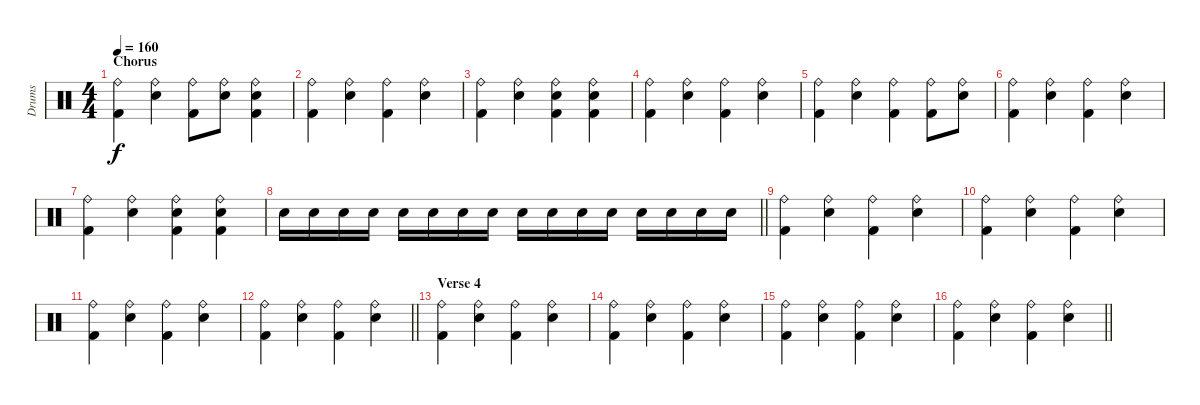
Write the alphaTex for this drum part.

\track ("Drums" "Drums") {instrument percussion}
\staff {score}
\articulation defaults
\ts (4 4)
\section ("" "Chorus")
\tempo 160
\clef neutral
\ks c
("Ride (bell)" "Kick (hit) 2").4{dy f} ("Ride (bell)" "Snare (hit) 2").4 ("Ride (bell)" "Kick (hit) 2").8 ("Ride (bell)" "Snare (hit) 2").8 ("Ride (bell)" "Snare (hit) 2" "Kick (hit) 2").4 |
("Ride (bell)" "Kick (hit) 2").4 ("Ride (bell)" "Snare (hit) 2").4 ("Ride (bell)" "Kick (hit) 2").4 ("Ride (bell)" "Snare (hit) 2").4 |
("Ride (bell)" "Kick (hit) 2").4 ("Ride (bell)" "Snare (hit) 2").4 ("Ride (bell)" "Snare (hit) 2" "Kick (hit) 2").4 ("Ride (bell)" "Snare (hit) 2" "Kick (hit) 2").4 |
("Ride (bell)" "Kick (hit) 2").4 ("Ride (bell)" "Snare (hit) 2").4 ("Ride (bell)" "Kick (hit) 2").4 ("Ride (bell)" "Snare (hit) 2").4 |
("Ride (bell)" "Kick (hit) 2").4 ("Ride (bell)" "Snare (hit) 2").4 ("Ride (bell)" "Kick (hit) 2").4 ("Ride (bell)" "Kick (hit) 2").8 ("Ride (bell)" "Snare (hit) 2").8 |
("Ride (bell)" "Kick (hit) 2").4 ("Ride (bell)" "Snare (hit) 2").4 ("Ride (bell)" "Kick (hit) 2").4 ("Ride (bell)" "Snare (hit) 2").4 |
("Ride (bell)" "Kick (hit) 2").4 ("Ride (bell)" "Snare (hit) 2").4 ("Ride (bell)" "Snare (hit) 2" "Kick (hit) 2").4 ("Ride (bell)" "Snare (hit) 2" "Kick (hit) 2").4 |
\barLineRight lightlight "Snare (hit) 2".16 "Snare (hit) 2".16 "Snare (hit) 2".16 "Snare (hit) 2".16 "Snare (hit) 2".16 "Snare (hit) 2".16 "Snare (hit) 2".16 "Snare (hit) 2".16 "Snare (hit) 2".16 "Snare (hit) 2".16 "Snare (hit) 2".16 "Snare (hit) 2".16 "Snare (hit) 2".16 "Snare (hit) 2".16 "Snare (hit) 2".16 "Snare (hit) 2".16
|
("Ride (bell)" "Kick (hit) 2").4 ("Ride (bell)" "Snare (hit) 2").4 ("Ride (bell)" "Kick (hit) 2").4 ("Ride (bell)" "Snare (hit) 2").4 |
("Ride (bell)" "Kick (hit) 2").4 ("Ride (bell)" "Snare (hit) 2").4 ("Ride (bell)" "Kick (hit) 2").4 ("Ride (bell)" "Snare (hit) 2").4 |
("Ride (bell)" "Kick (hit) 2").4 ("Ride (bell)" "Snare (hit) 2").4 ("Ride (bell)" "Kick (hit) 2").4 ("Ride (bell)" "Snare (hit) 2").4 |
\barLineRight lightlight
("Ride (bell)" "Kick (hit) 2").4 ("Ride (bell)" "Snare (hit) 2").4 ("Ride (bell)" "Kick (hit) 2").4 ("Ride (bell)" "Snare (hit) 2").4 |
\section ("" "Verse 4")
("Ride (bell)" "Kick (hit) 2").4 ("Ride (bell)" "Snare (hit) 2").4 ("Ride (bell)" "Kick (hit) 2").4 ("Ride (bell)" "Snare (hit) 2").4 |
("Ride (bell)" "Kick (hit) 2").4 ("Ride (bell)" "Snare (hit) 2").4 ("Ride (bell)" "Kick (hit) 2").4 ("Ride (bell)" "Snare (hit) 2").4 |
("Ride (bell)" "Kick (hit) 2").4 ("Ride (bell)" "Snare (hit) 2").4 ("Ride (bell)" "Kick (hit) 2").4 ("Ride (bell)" "Snare (hit) 2").4 |
\barLineRight lightlight
("Ride (bell)" "Kick (hit) 2").4 ("Ride (bell)" "Snare (hit) 2").4 ("Ride (bell)" "Kick (hit) 2").4 ("Ride (bell)" "Snare (hit) 2").4
